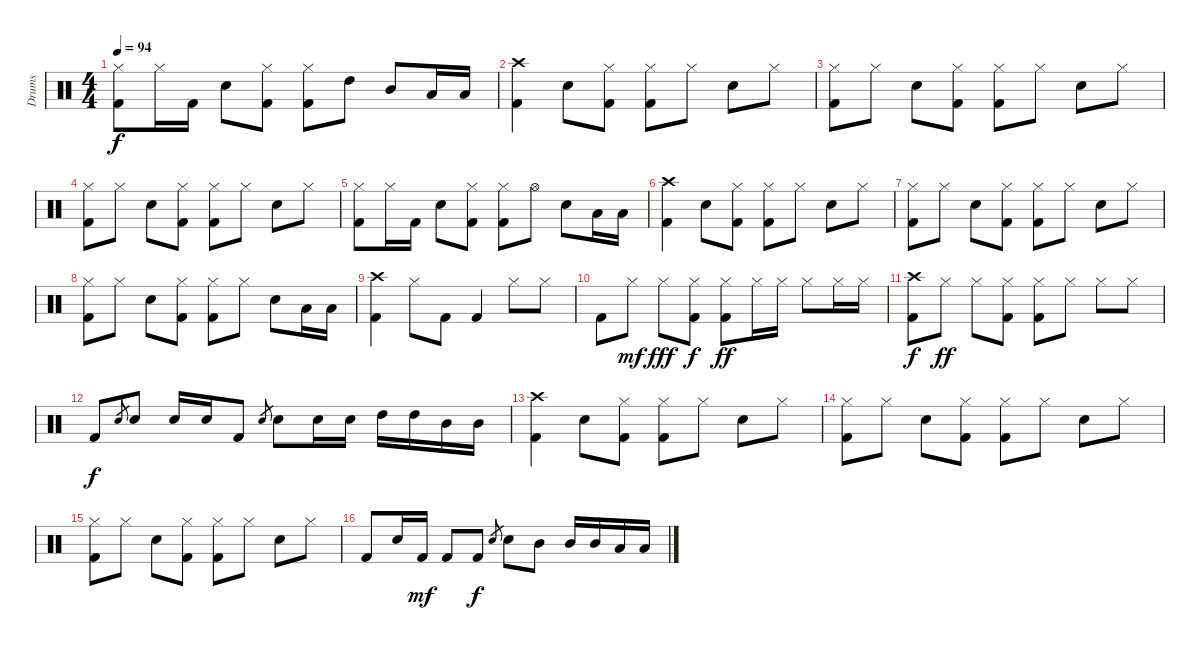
\track ("Drums" "Drums") {instrument percussion}
\staff {score}
\articulation defaults
\ts (4 4)
\tempo 94
\clef neutral
\ks c
("Hi-Hat (closed)" "Kick (hit) 2").8{dy f} "Hi-Hat (closed)".16 "Kick (hit) 2".16 "Snare (hit) 2".8 ("Hi-Hat (closed)" "Kick (hit) 2").8 ("Hi-Hat (closed)" "Kick (hit) 2").8 "High Tom (hit)".8 "Mid Tom (hit)".8 "Low Tom (hit)".16 "Low Tom (hit)".16 |
("Crash high (hit)" "Kick (hit) 2").4 "Snare (hit) 2".8 ("Hi-Hat (closed)" "Kick (hit) 2").8 ("Hi-Hat (closed)" "Kick (hit) 2").8 "Hi-Hat (closed)".8 "Snare (hit) 2".8 "Hi-Hat (closed)".8 |
("Hi-Hat (closed)" "Kick (hit) 2").8 "Hi-Hat (closed)".8 "Snare (hit) 2".8 ("Hi-Hat (closed)" "Kick (hit) 2").8 ("Hi-Hat (closed)" "Kick (hit) 2").8 "Hi-Hat (closed)".8 "Snare (hit) 2".8 "Hi-Hat (closed)".8 |
("Hi-Hat (closed)" "Kick (hit) 2").8 "Hi-Hat (closed)".8 "Snare (hit) 2".8 ("Hi-Hat (closed)" "Kick (hit) 2").8 ("Hi-Hat (closed)" "Kick (hit) 2").8 "Hi-Hat (closed)".8 "Snare (hit) 2".8 "Hi-Hat (closed)".8 |
("Hi-Hat (closed)" "Kick (hit) 2").8 "Hi-Hat (closed)".16 "Kick (hit) 2".16 "Snare (hit) 2".8 ("Hi-Hat (closed)" "Kick (hit) 2").8 ("Hi-Hat (closed)" "Kick (hit) 2").8 "Hi-Hat (open)".8 "Snare (hit) 2".8 "Low Tom (hit)".16 "Low Tom (hit)".16 |
("Crash high (hit)" "Kick (hit) 2").4 "Snare (hit) 2".8 ("Hi-Hat (closed)" "Kick (hit) 2").8 ("Hi-Hat (closed)" "Kick (hit) 2").8 "Hi-Hat (closed)".8 "Snare (hit) 2".8 "Hi-Hat (closed)".8 |
("Hi-Hat (closed)" "Kick (hit) 2").8 "Hi-Hat (closed)".8 "Snare (hit) 2".8 ("Hi-Hat (closed)" "Kick (hit) 2").8 ("Hi-Hat (closed)" "Kick (hit) 2").8 "Hi-Hat (closed)".8 "Snare (hit) 2".8 "Hi-Hat (closed)".8 |
("Hi-Hat (closed)" "Kick (hit) 2").8 "Hi-Hat (closed)".8 "Snare (hit) 2".8 ("Hi-Hat (closed)" "Kick (hit) 2").8 ("Hi-Hat (closed)" "Kick (hit) 2").8 "Hi-Hat (closed)".8 "Snare (hit) 2".8 "Low Tom (hit)".16 "Low Tom (hit)".16 |
("Crash high (hit)" "Kick (hit) 2").4 "Hi-Hat (closed)".8 "Kick (hit) 2".8 "Kick (hit) 2".4 "Hi-Hat (closed)".8 "Hi-Hat (closed)".8 |
"Kick (hit) 2".8 "Hi-Hat (closed)".8{dy mf} "Hi-Hat (closed)".8{dy fff} ("Hi-Hat (closed)" "Kick (hit) 2").8{dy f} ("Hi-Hat (closed)" "Kick (hit) 2").8{dy ff} "Hi-Hat (closed)".16 "Hi-Hat (closed)".16 "Hi-Hat (closed)".8 "Hi-Hat (closed)".16 "Hi-Hat (closed)".16 |
("Crash high (hit)" "Kick (hit) 2").8{dy f} "Hi-Hat (closed)".8{dy ff} "Hi-Hat (closed)".8 ("Hi-Hat (closed)" "Kick (hit) 2").8 ("Hi-Hat (closed)" "Kick (hit) 2").8 "Hi-Hat (closed)".8 "Hi-Hat (closed)".8 "Hi-Hat (closed)".8 |
"Kick (hit) 2".8{dy f} "Snare (hit) 2".8{gr} "Snare (hit) 2".8 "Snare (hit) 2".16 "Snare (hit) 2".16 "Kick (hit) 2".8 "Snare (hit) 2".8{gr} "Snare (hit) 2".8 "Snare (hit) 2".16 "Snare (hit) 2".16 "High Tom (hit)".16 "High Tom (hit)".16 "Mid Tom (hit)".16 "Mid Tom (hit)".16 |
("Crash high (hit)" "Kick (hit) 2").4 "Snare (hit) 2".8 ("Hi-Hat (closed)" "Kick (hit) 2").8 ("Hi-Hat (closed)" "Kick (hit) 2").8 "Hi-Hat (closed)".8 "Snare (hit) 2".8 "Hi-Hat (closed)".8 |
("Hi-Hat (closed)" "Kick (hit) 2").8 "Hi-Hat (closed)".8 "Snare (hit) 2".8 ("Hi-Hat (closed)" "Kick (hit) 2").8 ("Hi-Hat (closed)" "Kick (hit) 2").8 "Hi-Hat (closed)".8 "Snare (hit) 2".8 "Hi-Hat (closed)".8 |
("Hi-Hat (closed)" "Kick (hit) 2").8 "Hi-Hat (closed)".8 "Snare (hit) 2".8 ("Hi-Hat (closed)" "Kick (hit) 2").8 ("Hi-Hat (closed)" "Kick (hit) 2").8 "Hi-Hat (closed)".8 "Snare (hit) 2".8 "Hi-Hat (closed)".8 |
"Kick (hit) 2".8 "Snare (hit) 2".16 "Kick (hit) 2".16{dy mf} "Kick (hit) 2".8 "Kick (hit) 2".8{dy f} "Snare (hit) 2".8{gr} "Snare (hit) 2".8 "Mid Tom (hit)".8 "Mid Tom (hit)".16 "Mid Tom (hit)".16 "Low Tom (hit)".16 "Low Tom (hit)".16
